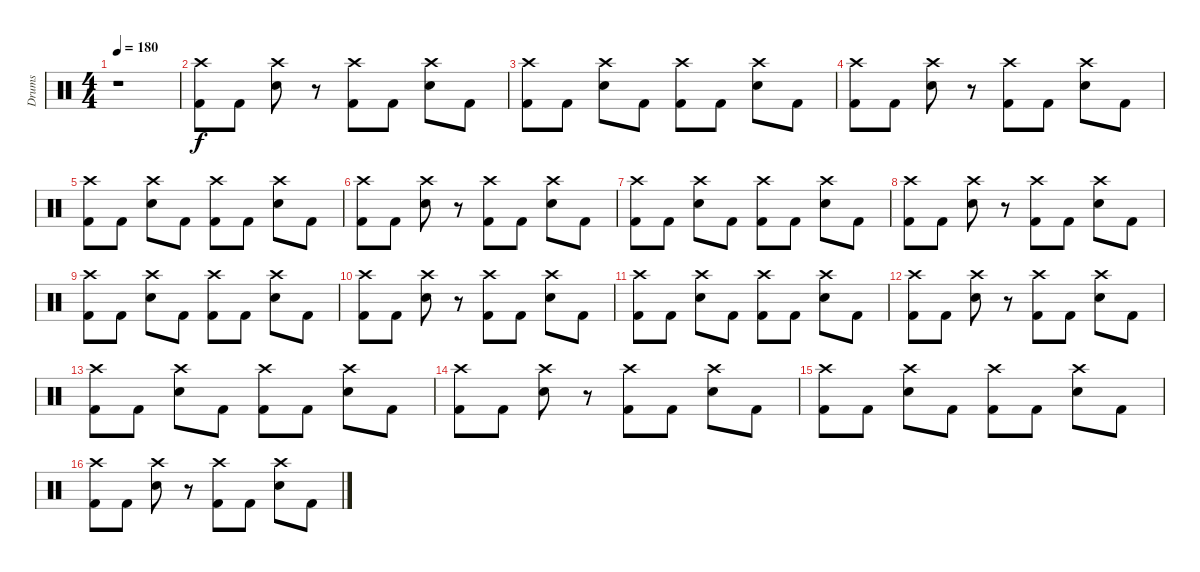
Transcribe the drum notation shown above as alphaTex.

\track ("Drums" "Drums") {instrument percussion}
\staff {score}
\articulation defaults
\ts (4 4)
\tempo 180
\clef neutral
\ks c
r.1{dy f} |
("Crash high (hit)" "Kick (hit) 2").8 "Kick (hit) 2".8 ("Crash high (hit)" "Electric Snare (hit)").8 r.8 ("Crash high (hit)" "Kick (hit) 2").8 "Kick (hit) 2".8 ("Crash high (hit)" "Electric Snare (hit)").8 "Kick (hit) 2".8 |
("Crash high (hit)" "Kick (hit) 2").8 "Kick (hit) 2".8 ("Crash high (hit)" "Electric Snare (hit)").8 "Kick (hit) 2".8 ("Crash high (hit)" "Kick (hit) 2").8 "Kick (hit) 2".8 ("Crash high (hit)" "Electric Snare (hit)").8 "Kick (hit) 2".8 |
("Crash high (hit)" "Kick (hit) 2").8 "Kick (hit) 2".8 ("Crash high (hit)" "Electric Snare (hit)").8 r.8 ("Crash high (hit)" "Kick (hit) 2").8 "Kick (hit) 2".8 ("Crash high (hit)" "Electric Snare (hit)").8 "Kick (hit) 2".8 |
("Crash high (hit)" "Kick (hit) 2").8 "Kick (hit) 2".8 ("Crash high (hit)" "Electric Snare (hit)").8 "Kick (hit) 2".8 ("Crash high (hit)" "Kick (hit) 2").8 "Kick (hit) 2".8 ("Crash high (hit)" "Electric Snare (hit)").8 "Kick (hit) 2".8 |
("Crash high (hit)" "Kick (hit) 2").8 "Kick (hit) 2".8 ("Crash high (hit)" "Electric Snare (hit)").8 r.8 ("Crash high (hit)" "Kick (hit) 2").8 "Kick (hit) 2".8 ("Crash high (hit)" "Electric Snare (hit)").8 "Kick (hit) 2".8 |
("Crash high (hit)" "Kick (hit) 2").8 "Kick (hit) 2".8 ("Crash high (hit)" "Electric Snare (hit)").8 "Kick (hit) 2".8 ("Crash high (hit)" "Kick (hit) 2").8 "Kick (hit) 2".8 ("Crash high (hit)" "Electric Snare (hit)").8 "Kick (hit) 2".8 |
("Crash high (hit)" "Kick (hit) 2").8 "Kick (hit) 2".8 ("Crash high (hit)" "Electric Snare (hit)").8 r.8 ("Crash high (hit)" "Kick (hit) 2").8 "Kick (hit) 2".8 ("Crash high (hit)" "Electric Snare (hit)").8 "Kick (hit) 2".8 |
("Crash high (hit)" "Kick (hit) 2").8 "Kick (hit) 2".8 ("Crash high (hit)" "Electric Snare (hit)").8 "Kick (hit) 2".8 ("Crash high (hit)" "Kick (hit) 2").8 "Kick (hit) 2".8 ("Crash high (hit)" "Electric Snare (hit)").8 "Kick (hit) 2".8 |
("Crash high (hit)" "Kick (hit) 2").8 "Kick (hit) 2".8 ("Crash high (hit)" "Electric Snare (hit)").8 r.8 ("Crash high (hit)" "Kick (hit) 2").8 "Kick (hit) 2".8 ("Crash high (hit)" "Electric Snare (hit)").8 "Kick (hit) 2".8 |
("Crash high (hit)" "Kick (hit) 2").8 "Kick (hit) 2".8 ("Crash high (hit)" "Electric Snare (hit)").8 "Kick (hit) 2".8 ("Crash high (hit)" "Kick (hit) 2").8 "Kick (hit) 2".8 ("Crash high (hit)" "Electric Snare (hit)").8 "Kick (hit) 2".8 |
("Crash high (hit)" "Kick (hit) 2").8 "Kick (hit) 2".8 ("Crash high (hit)" "Electric Snare (hit)").8 r.8 ("Crash high (hit)" "Kick (hit) 2").8 "Kick (hit) 2".8 ("Crash high (hit)" "Electric Snare (hit)").8 "Kick (hit) 2".8 |
("Crash high (hit)" "Kick (hit) 2").8 "Kick (hit) 2".8 ("Crash high (hit)" "Electric Snare (hit)").8 "Kick (hit) 2".8 ("Crash high (hit)" "Kick (hit) 2").8 "Kick (hit) 2".8 ("Crash high (hit)" "Electric Snare (hit)").8 "Kick (hit) 2".8 |
("Crash high (hit)" "Kick (hit) 2").8 "Kick (hit) 2".8 ("Crash high (hit)" "Electric Snare (hit)").8 r.8 ("Crash high (hit)" "Kick (hit) 2").8 "Kick (hit) 2".8 ("Crash high (hit)" "Electric Snare (hit)").8 "Kick (hit) 2".8 |
("Crash high (hit)" "Kick (hit) 2").8 "Kick (hit) 2".8 ("Crash high (hit)" "Electric Snare (hit)").8 "Kick (hit) 2".8 ("Crash high (hit)" "Kick (hit) 2").8 "Kick (hit) 2".8 ("Crash high (hit)" "Electric Snare (hit)").8 "Kick (hit) 2".8 |
("Crash high (hit)" "Kick (hit) 2").8 "Kick (hit) 2".8 ("Crash high (hit)" "Electric Snare (hit)").8 r.8 ("Crash high (hit)" "Kick (hit) 2").8 "Kick (hit) 2".8 ("Crash high (hit)" "Electric Snare (hit)").8 "Kick (hit) 2".8
